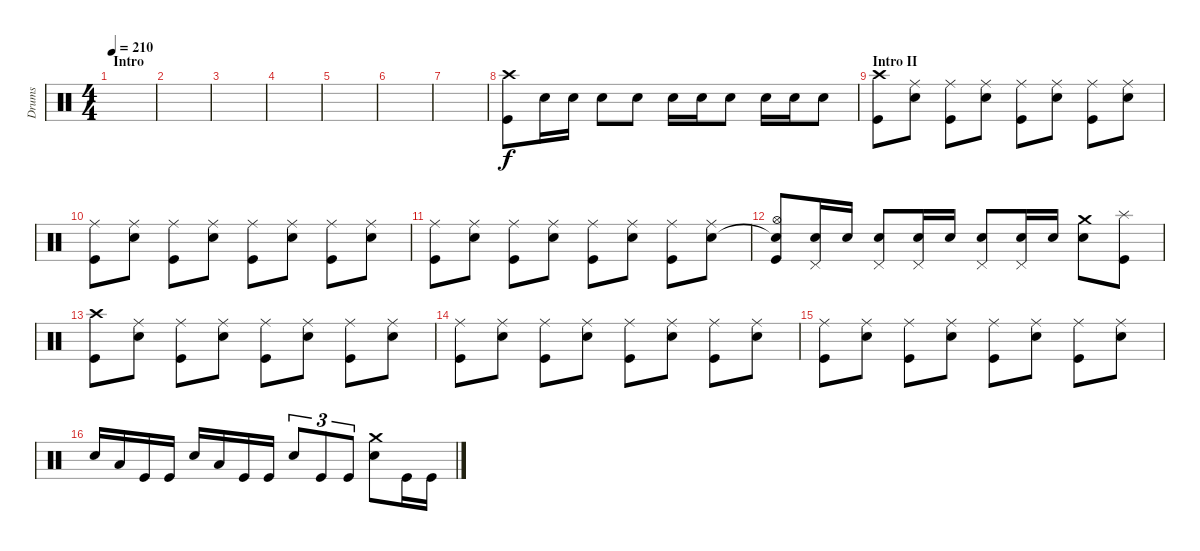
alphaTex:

\track ("Drums" "Drums") {instrument percussion}
\staff {score}
\articulation defaults
\ts (4 4)
\section ("" "Intro")
\tempo 210
\clef neutral
\ks c
|
|
|
|
|
|
|
("Crash high (hit)" "Kick (hit)").8 "Electric Snare (hit)".16 "Electric Snare (hit)".16 "Electric Snare (hit)".8 "Electric Snare (hit)".8 "Electric Snare (hit)".16 "Electric Snare (hit)".16 "Electric Snare (hit)".8 "Electric Snare (hit)".16 "Electric Snare (hit)".16 "Electric Snare (hit)".8 |
\section ("" "Intro II")
("Crash high (hit)" "Kick (hit)").8 ("Ride (middle)" "Electric Snare (hit)").8 ("Ride (middle)" "Kick (hit)").8 ("Ride (middle)" "Electric Snare (hit)").8 ("Ride (middle)" "Kick (hit)").8 ("Ride (middle)" "Electric Snare (hit)").8 ("Ride (middle)" "Kick (hit)").8 ("Ride (middle)" "Electric Snare (hit)").8 |
("Ride (middle)" "Kick (hit)").8 ("Ride (middle)" "Electric Snare (hit)").8 ("Ride (middle)" "Kick (hit)").8 ("Ride (middle)" "Electric Snare (hit)").8 ("Ride (middle)" "Kick (hit)").8 ("Ride (middle)" "Electric Snare (hit)").8 ("Ride (middle)" "Kick (hit)").8 ("Ride (middle)" "Electric Snare (hit)").8 |
("Ride (middle)" "Kick (hit)").8 ("Ride (middle)" "Electric Snare (hit)").8 ("Ride (middle)" "Kick (hit)").8 ("Ride (middle)" "Electric Snare (hit)").8 ("Ride (middle)" "Kick (hit)").8 ("Ride (middle)" "Electric Snare (hit)").8 ("Ride (middle)" "Kick (hit)").8 ("Ride (middle)" "Electric Snare (hit)").8 |
("Hi-Hat (open)" "Snare (hit)"{t} "Kick (hit)").8 ("Pedal Hi-Hat (hit)" "Electric Snare (hit)").16 "Electric Snare (hit)".16 ("Pedal Hi-Hat (hit)" "Electric Snare (hit)").8 ("Pedal Hi-Hat (hit)" "Electric Snare (hit)").16 "Electric Snare (hit)".16 ("Pedal Hi-Hat (hit)" "Electric Snare (hit)").8 ("Pedal Hi-Hat (hit)" "Electric Snare (hit)").16 "Electric Snare (hit)".16 ("Crash medium (hit)" "Electric Snare (hit)").8 ("Splash (hit)" "Kick (hit)").8 |
("Crash high (hit)" "Kick (hit)").8 ("Ride (middle)" "Electric Snare (hit)").8 ("Ride (middle)" "Kick (hit)").8 ("Ride (middle)" "Electric Snare (hit)").8 ("Ride (middle)" "Kick (hit)").8 ("Ride (middle)" "Electric Snare (hit)").8 ("Ride (middle)" "Kick (hit)").8 ("Ride (middle)" "Electric Snare (hit)").8 |
("Ride (middle)" "Kick (hit)").8 ("Ride (middle)" "Electric Snare (hit)").8 ("Ride (middle)" "Kick (hit)").8 ("Ride (middle)" "Electric Snare (hit)").8 ("Ride (middle)" "Kick (hit)").8 ("Ride (middle)" "Electric Snare (hit)").8 ("Ride (middle)" "Kick (hit)").8 ("Ride (middle)" "Electric Snare (hit)").8 |
("Ride (middle)" "Kick (hit)").8 ("Ride (middle)" "Electric Snare (hit)").8 ("Ride (middle)" "Kick (hit)").8 ("Ride (middle)" "Electric Snare (hit)").8 ("Ride (middle)" "Kick (hit)").8 ("Ride (middle)" "Electric Snare (hit)").8 ("Ride (middle)" "Kick (hit)").8 ("Ride (middle)" "Electric Snare (hit)").8 |
"Electric Snare (hit)".16 "Low Tom (hit)".16 "Kick (hit)".16 "Kick (hit)".16 "Electric Snare (hit)".16 "Low Tom (hit)".16 "Kick (hit)".16 "Kick (hit)".16 "Electric Snare (hit)".8{tu (3 2)} "Kick (hit)".8{tu (3 2)} "Kick (hit)".8{tu (3 2)} ("Crash medium (hit)" "Electric Snare (hit)").8 "Kick (hit)".16 "Kick (hit)".16
